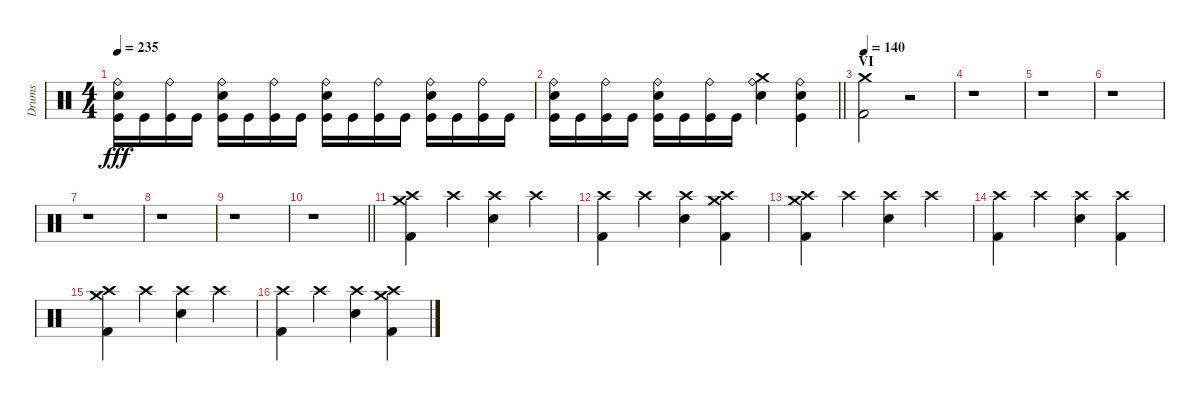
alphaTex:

\track ("Drums" "Drums") {instrument percussion}
\staff {score}
\articulation defaults
\ts (4 4)
\tempo 235
\clef neutral
\ks c
("Kick (hit)" "Electric Snare (hit)" "Ride (bell)").16{dy fff} "Kick (hit)".16 ("Kick (hit)" "Ride (bell)").16 "Kick (hit)".16 ("Kick (hit)" "Electric Snare (hit)" "Ride (bell)").16 "Kick (hit)".16 ("Kick (hit)" "Ride (bell)").16 "Kick (hit)".16 ("Kick (hit)" "Electric Snare (hit)" "Ride (bell)").16 "Kick (hit)".16 ("Kick (hit)" "Ride (bell)").16 "Kick (hit)".16 ("Kick (hit)" "Electric Snare (hit)" "Ride (bell)").16 "Kick (hit)".16 ("Kick (hit)" "Ride (bell)").16 "Kick (hit)".16 |
\barLineRight lightlight
("Kick (hit)" "Electric Snare (hit)" "Ride (bell)").16 "Kick (hit)".16 ("Kick (hit)" "Ride (bell)").16 "Kick (hit)".16 ("Kick (hit)" "Electric Snare (hit)" "Ride (bell)").16 "Kick (hit)".16 ("Kick (hit)" "Ride (bell)").16 "Kick (hit)".16 ("Crash medium (hit)" "Electric Snare (hit)" "Ride (bell)").4 ("Kick (hit)" "Electric Snare (hit)" "Ride (bell)").4 |
\section ("" "VI")
\tempo 140
("Crash medium (hit)" "Kick (hit) 2").2 r.2 |
r.1 |
r.1 |
r.1 |
r.1 |
r.1 |
r.1 |
\barLineRight lightlight
r.1 |
("Crash high (hit)" "Crash medium (hit)" "Kick (hit) 2").4 "Crash high (hit)".4 ("Crash high (hit)" "Electric Snare (hit)").4 "Crash high (hit)".4 |
("Crash high (hit)" "Kick (hit) 2").4 "Crash high (hit)".4 ("Crash high (hit)" "Electric Snare (hit)").4 ("Crash high (hit)" "Crash medium (hit)" "Kick (hit) 2").4 |
("Crash high (hit)" "Crash medium (hit)" "Kick (hit) 2").4 "Crash high (hit)".4 ("Crash high (hit)" "Electric Snare (hit)").4 "Crash high (hit)".4 |
("Crash high (hit)" "Kick (hit) 2").4 "Crash high (hit)".4 ("Crash high (hit)" "Electric Snare (hit)").4 ("Crash high (hit)" "Kick (hit) 2").4 |
("Crash high (hit)" "Crash medium (hit)" "Kick (hit) 2").4 "Crash high (hit)".4 ("Crash high (hit)" "Electric Snare (hit)").4 "Crash high (hit)".4 |
("Crash high (hit)" "Kick (hit) 2").4 "Crash high (hit)".4 ("Crash high (hit)" "Electric Snare (hit)").4 ("Crash high (hit)" "Crash medium (hit)" "Kick (hit) 2").4
